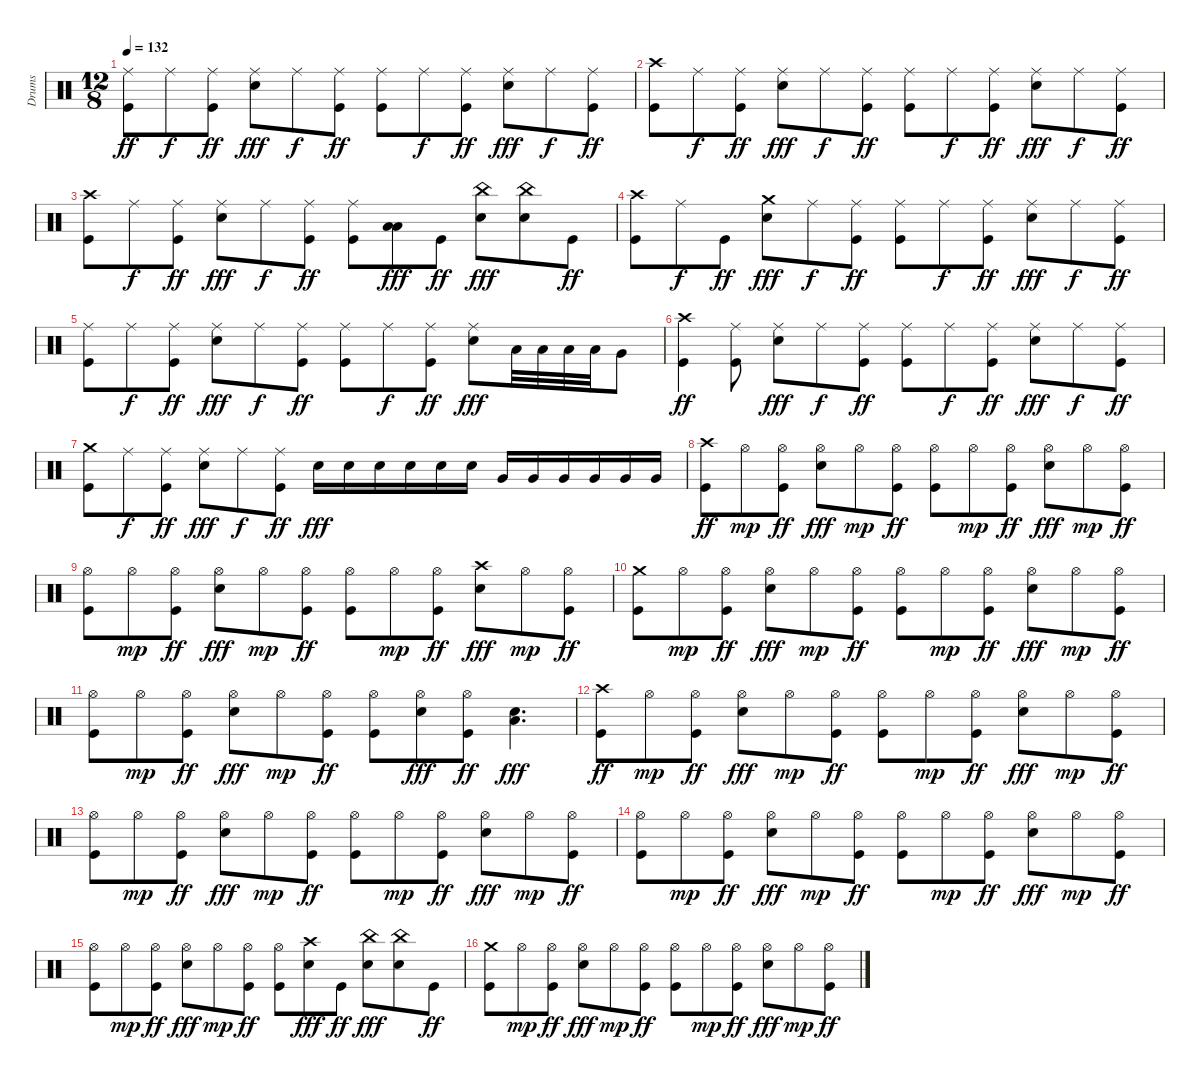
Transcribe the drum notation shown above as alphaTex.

\track ("Drums" "Drums") {instrument percussion}
\staff {score}
\articulation defaults
\ts (12 8)
\tempo 132
\clef neutral
\ks c
("Ride (middle)" "Kick (hit)").8{dy ff} "Ride (middle)".8{dy f} ("Ride (middle)" "Kick (hit)").8{dy ff} ("Ride (middle)" "Snare (hit) 2").8{dy fff} "Ride (middle)".8{dy f} ("Ride (middle)" "Kick (hit)").8{dy ff} ("Ride (middle)" "Kick (hit)").8 "Ride (middle)".8{dy f} ("Ride (middle)" "Kick (hit)").8{dy ff} ("Ride (middle)" "Snare (hit) 2").8{dy fff} "Ride (middle)".8{dy f} ("Ride (middle)" "Kick (hit)").8{dy ff} |
("Crash high (hit)" "Kick (hit)").8 "Ride (middle)".8{dy f} ("Ride (middle)" "Kick (hit)").8{dy ff} ("Ride (middle)" "Snare (hit) 2").8{dy fff} "Ride (middle)".8{dy f} ("Ride (middle)" "Kick (hit)").8{dy ff} ("Ride (middle)" "Kick (hit)").8 "Ride (middle)".8{dy f} ("Ride (middle)" "Kick (hit)").8{dy ff} ("Ride (middle)" "Snare (hit) 2").8{dy fff} "Ride (middle)".8{dy f} ("Ride (middle)" "Kick (hit)").8{dy ff} |
("Crash high (hit)" "Kick (hit)").8 "Ride (middle)".8{dy f} ("Ride (middle)" "Kick (hit)").8{dy ff} ("Ride (middle)" "Snare (hit) 2").8{dy fff} "Ride (middle)".8{dy f} ("Ride (middle)" "Kick (hit)").8{dy ff} ("Ride (middle)" "Kick (hit)").8 ("Low Tom (hit)" "Low Floor Tom (hit)").8{dy fff} "Kick (hit)".8{dy ff} ("China (hit)" "Snare (hit) 2").8{dy fff} ("China (hit)" "Snare (hit) 2").8 "Kick (hit)".8{dy ff} |
("Crash high (hit)" "Kick (hit)").8 "Ride (middle)".8{dy f} "Kick (hit)".8{dy ff} ("Crash medium (hit)" "Snare (hit) 2").8{dy fff} "Ride (middle)".8{dy f} ("Ride (middle)" "Kick (hit)").8{dy ff} ("Ride (middle)" "Kick (hit)").8 "Ride (middle)".8{dy f} ("Ride (middle)" "Kick (hit)").8{dy ff} ("Ride (middle)" "Snare (hit) 2").8{dy fff} "Ride (middle)".8{dy f} ("Ride (middle)" "Kick (hit)").8{dy ff} |
("Ride (middle)" "Kick (hit)").8 "Ride (middle)".8{dy f} ("Ride (middle)" "Kick (hit)").8{dy ff} ("Ride (middle)" "Snare (hit) 2").8{dy fff} "Ride (middle)".8{dy f} ("Ride (middle)" "Kick (hit)").8{dy ff} ("Ride (middle)" "Kick (hit)").8 "Ride (middle)".8{dy f} ("Ride (middle)" "Kick (hit)").8{dy ff} ("Ride (middle)" "Snare (hit) 2").8{dy fff} "Low Tom (hit)".32 "Low Tom (hit)".32 "Low Tom (hit)".32 "Low Tom (hit)".32 "Very Low Tom (hit)".8 |
("Crash high (hit)" "Kick (hit)").4{dy ff} ("Ride (middle)" "Kick (hit)").8 ("Ride (middle)" "Snare (hit) 2").8{dy fff} "Ride (middle)".8{dy f} ("Ride (middle)" "Kick (hit)").8{dy ff} ("Ride (middle)" "Kick (hit)").8 "Ride (middle)".8{dy f} ("Ride (middle)" "Kick (hit)").8{dy ff} ("Ride (middle)" "Snare (hit) 2").8{dy fff} "Ride (middle)".8{dy f} ("Ride (middle)" "Kick (hit)").8{dy ff} |
("Crash medium (hit)" "Kick (hit)").8 "Ride (middle)".8{dy f} ("Ride (middle)" "Kick (hit)").8{dy ff} ("Ride (middle)" "Snare (hit) 2").8{dy fff} "Ride (middle)".8{dy f} ("Ride (middle)" "Kick (hit)").8{dy ff} "Snare (hit) 2".16{dy fff} "Snare (hit) 2".16 "Snare (hit) 2".16 "Snare (hit) 2".16 "Snare (hit) 2".16 "Snare (hit) 2".16 "Very Low Tom (hit)".16 "Very Low Tom (hit)".16 "Very Low Tom (hit)".16 "Very Low Tom (hit)".16 "Very Low Tom (hit)".16 "Very Low Tom (hit)".16 |
("Crash high (hit)" "Kick (hit)").8{dy ff} "Hi-Hat (open)".8{dy mp} ("Hi-Hat (open)" "Kick (hit)").8{dy ff} ("Hi-Hat (open)" "Snare (hit) 2").8{dy fff} "Hi-Hat (open)".8{dy mp} ("Hi-Hat (open)" "Kick (hit)").8{dy ff} ("Hi-Hat (open)" "Kick (hit)").8 "Hi-Hat (open)".8{dy mp} ("Hi-Hat (open)" "Kick (hit)").8{dy ff} ("Hi-Hat (open)" "Snare (hit) 2").8{dy fff} "Hi-Hat (open)".8{dy mp} ("Hi-Hat (open)" "Kick (hit)").8{dy ff} |
("Hi-Hat (open)" "Kick (hit)").8 "Hi-Hat (open)".8{dy mp} ("Hi-Hat (open)" "Kick (hit)").8{dy ff} ("Hi-Hat (open)" "Snare (hit) 2").8{dy fff} "Hi-Hat (open)".8{dy mp} ("Hi-Hat (open)" "Kick (hit)").8{dy ff} ("Hi-Hat (open)" "Kick (hit)").8 "Hi-Hat (open)".8{dy mp} ("Hi-Hat (open)" "Kick (hit)").8{dy ff} ("Crash high (hit)" "Snare (hit) 2").8{dy fff} "Hi-Hat (open)".8{dy mp} ("Hi-Hat (open)" "Kick (hit)").8{dy ff} |
("Crash medium (hit)" "Kick (hit)").8 "Hi-Hat (open)".8{dy mp} ("Hi-Hat (open)" "Kick (hit)").8{dy ff} ("Hi-Hat (open)" "Snare (hit) 2").8{dy fff} "Hi-Hat (open)".8{dy mp} ("Hi-Hat (open)" "Kick (hit)").8{dy ff} ("Hi-Hat (open)" "Kick (hit)").8 "Hi-Hat (open)".8{dy mp} ("Hi-Hat (open)" "Kick (hit)").8{dy ff} ("Hi-Hat (open)" "Snare (hit) 2").8{dy fff} "Hi-Hat (open)".8{dy mp} ("Hi-Hat (open)" "Kick (hit)").8{dy ff} |
("Hi-Hat (open)" "Kick (hit)").8 "Hi-Hat (open)".8{dy mp} ("Hi-Hat (open)" "Kick (hit)").8{dy ff} ("Hi-Hat (open)" "Snare (hit) 2").8{dy fff} "Hi-Hat (open)".8{dy mp} ("Hi-Hat (open)" "Kick (hit)").8{dy ff} ("Hi-Hat (open)" "Kick (hit)").8 ("Hi-Hat (open)" "Snare (hit) 2").8{dy fff} ("Hi-Hat (open)" "Kick (hit)").8{dy ff} ("Low Floor Tom (hit)" "Snare (hit) 2").4{d dy fff} |
("Crash high (hit)" "Kick (hit)").8{dy ff} "Hi-Hat (open)".8{dy mp} ("Hi-Hat (open)" "Kick (hit)").8{dy ff} ("Hi-Hat (open)" "Snare (hit) 2").8{dy fff} "Hi-Hat (open)".8{dy mp} ("Hi-Hat (open)" "Kick (hit)").8{dy ff} ("Hi-Hat (open)" "Kick (hit)").8 "Hi-Hat (open)".8{dy mp} ("Hi-Hat (open)" "Kick (hit)").8{dy ff} ("Hi-Hat (open)" "Snare (hit) 2").8{dy fff} "Hi-Hat (open)".8{dy mp} ("Hi-Hat (open)" "Kick (hit)").8{dy ff} |
("Hi-Hat (open)" "Kick (hit)").8 "Hi-Hat (open)".8{dy mp} ("Hi-Hat (open)" "Kick (hit)").8{dy ff} ("Hi-Hat (open)" "Snare (hit) 2").8{dy fff} "Hi-Hat (open)".8{dy mp} ("Hi-Hat (open)" "Kick (hit)").8{dy ff} ("Hi-Hat (open)" "Kick (hit)").8 "Hi-Hat (open)".8{dy mp} ("Hi-Hat (open)" "Kick (hit)").8{dy ff} ("Hi-Hat (open)" "Snare (hit) 2").8{dy fff} "Hi-Hat (open)".8{dy mp} ("Hi-Hat (open)" "Kick (hit)").8{dy ff} |
("Hi-Hat (open)" "Kick (hit)").8 "Hi-Hat (open)".8{dy mp} ("Hi-Hat (open)" "Kick (hit)").8{dy ff} ("Hi-Hat (open)" "Snare (hit) 2").8{dy fff} "Hi-Hat (open)".8{dy mp} ("Hi-Hat (open)" "Kick (hit)").8{dy ff} ("Hi-Hat (open)" "Kick (hit)").8 "Hi-Hat (open)".8{dy mp} ("Hi-Hat (open)" "Kick (hit)").8{dy ff} ("Hi-Hat (open)" "Snare (hit) 2").8{dy fff} "Hi-Hat (open)".8{dy mp} ("Hi-Hat (open)" "Kick (hit)").8{dy ff} |
("Hi-Hat (open)" "Kick (hit)").8 "Hi-Hat (open)".8{dy mp} ("Hi-Hat (open)" "Kick (hit)").8{dy ff} ("Hi-Hat (open)" "Snare (hit) 2").8{dy fff} "Hi-Hat (open)".8{dy mp} ("Hi-Hat (open)" "Kick (hit)").8{dy ff} ("Hi-Hat (open)" "Kick (hit)").8 ("Crash high (hit)" "Snare (hit) 2").8{dy fff} "Kick (hit)".8{dy ff} ("China (hit)" "Snare (hit) 2").8{dy fff} ("China (hit)" "Snare (hit) 2").8 "Kick (hit)".8{dy ff} |
("Crash medium (hit)" "Kick (hit)").8 "Hi-Hat (open)".8{dy mp} ("Hi-Hat (open)" "Kick (hit)").8{dy ff} ("Hi-Hat (open)" "Snare (hit) 2").8{dy fff} "Hi-Hat (open)".8{dy mp} ("Hi-Hat (open)" "Kick (hit)").8{dy ff} ("Hi-Hat (open)" "Kick (hit)").8 "Hi-Hat (open)".8{dy mp} ("Hi-Hat (open)" "Kick (hit)").8{dy ff} ("Hi-Hat (open)" "Snare (hit) 2").8{dy fff} "Hi-Hat (open)".8{dy mp} ("Hi-Hat (open)" "Kick (hit)").8{dy ff}
